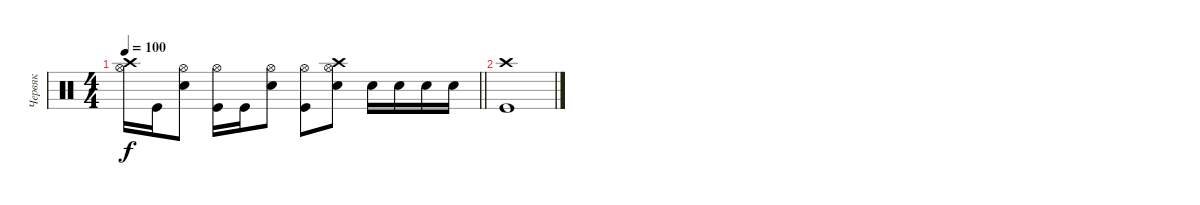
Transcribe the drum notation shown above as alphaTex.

\track ("Червяк" "Червяк") {instrument percussion}
\staff {score}
\articulation defaults
\ts (4 4)
\tempo 100
\clef neutral
\barLineRight lightlight
\ks c
("Hi-Hat (open)" "Crash high (hit)").16{dy f} "Kick (hit)".16 ("Hi-Hat (open)" "Electric Snare (hit)").8 ("Hi-Hat (open)" "Kick (hit)").16 "Kick (hit)".16 ("Hi-Hat (open)" "Electric Snare (hit)").8 ("Hi-Hat (open)" "Kick (hit)").8 ("Hi-Hat (open)" "Crash high (hit)" "Electric Snare (hit)").8 "Electric Snare (hit)".16 "Electric Snare (hit)".16 "Electric Snare (hit)".16 "Electric Snare (hit)".16 |
("Crash high (hit)" "Kick (hit)").1
